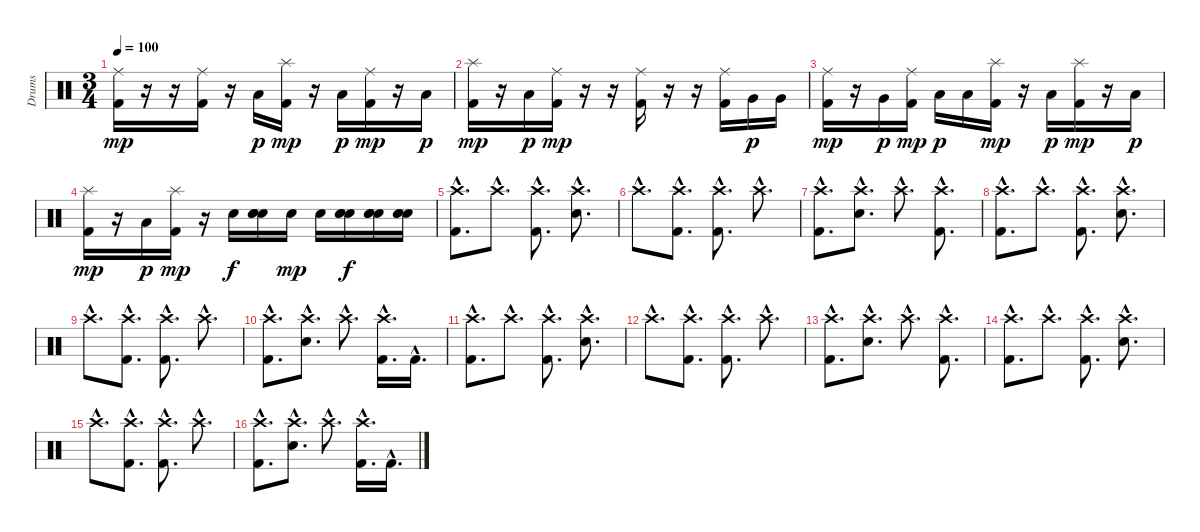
\track ("Drums" "Drums") {instrument percussion}
\staff {score}
\articulation defaults
\ts (3 4)
\tempo 100
\clef neutral
\ks c
("Ride (middle)" "Kick (hit) 2").16{dy mp} r.16 r.16 ("Ride (middle)" "Kick (hit) 2").16 r.16 "Low Floor Tom (hit)".16{dy p} ("Splash (hit)" "Kick (hit) 2").16{dy mp} r.16 "Low Floor Tom (hit)".16{dy p} ("Ride (middle)" "Kick (hit) 2").16{dy mp} r.16 "Low Floor Tom (hit)".16{dy p} |
("Splash (hit)" "Kick (hit) 2").16{dy mp} r.16 "Low Floor Tom (hit)".16{dy p} ("Ride (middle)" "Kick (hit) 2").16{dy mp} r.16 r.16 ("Ride (middle)" "Kick (hit) 2").16 r.16 r.16 ("Ride (middle)" "Kick (hit) 2").16 "Very Low Tom (hit)".16{dy p} "Very Low Tom (hit)".16 |
("Ride (middle)" "Kick (hit) 2").16{dy mp} r.16 "Very Low Tom (hit)".16{dy p} ("Ride (middle)" "Kick (hit) 2").16{dy mp} "Low Floor Tom (hit)".16{dy p} "Low Floor Tom (hit)".16 ("Splash (hit)" "Kick (hit) 2").16{dy mp} r.16 "Low Floor Tom (hit)".16{dy p} ("Splash (hit)" "Kick (hit) 2").16{dy mp} r.16 "Low Floor Tom (hit)".16{dy p} |
("Splash (hit)" "Kick (hit) 2").16{dy mp} r.16 "Low Floor Tom (hit)".16{dy p} ("Splash (hit)" "Kick (hit) 2").16{dy mp} r.16 "Electric Snare (hit)".16{dy f} ("Electric Snare (hit)" "Electric Snare (hit)" "Electric Snare (hit)").16 "Electric Snare (hit)".16{dy mp} "Electric Snare (hit)".16 ("Electric Snare (hit)" "Electric Snare (hit)" "Electric Snare (hit)").16{dy f} ("Electric Snare (hit)" "Electric Snare (hit)" "Electric Snare (hit)").16 ("Electric Snare (hit)" "Electric Snare (hit)" "Electric Snare (hit)").16 |
("Crash high (hit)"{hac} "Kick (hit) 2"{hac}).8{d} "Crash high (hit)"{hac}.8{d} ("Crash high (hit)"{hac} "Kick (hit) 2"{hac}).8{d} ("Crash high (hit)"{hac} "Electric Snare (hit)"{hac}).8{d} |
"Crash high (hit)"{hac}.8{d} ("Crash high (hit)"{hac} "Kick (hit) 2"{hac}).8{d} ("Crash high (hit)"{hac} "Kick (hit) 2"{hac}).8{d} "Crash high (hit)"{hac}.8{d} |
("Crash high (hit)"{hac} "Kick (hit) 2"{hac}).8{d} ("Crash high (hit)"{hac} "Electric Snare (hit)"{hac}).8{d} "Crash high (hit)"{hac}.8{d} ("Crash high (hit)"{hac} "Kick (hit) 2"{hac}).8{d} |
("Crash high (hit)"{hac} "Kick (hit) 2"{hac}).8{d} "Crash high (hit)"{hac}.8{d} ("Crash high (hit)"{hac} "Kick (hit) 2"{hac}).8{d} ("Crash high (hit)"{hac} "Electric Snare (hit)"{hac}).8{d} |
"Crash high (hit)"{hac}.8{d} ("Crash high (hit)"{hac} "Kick (hit) 2"{hac}).8{d} ("Crash high (hit)"{hac} "Kick (hit) 2"{hac}).8{d} "Crash high (hit)"{hac}.8{d} |
("Crash high (hit)"{hac} "Kick (hit) 2"{hac}).8{d} ("Crash high (hit)"{hac} "Electric Snare (hit)"{hac}).8{d} "Crash high (hit)"{hac}.8{d} ("Crash high (hit)"{hac} "Kick (hit) 2"{hac}).16{d} "Kick (hit) 2"{hac}.16{d} |
("Crash high (hit)"{hac} "Kick (hit) 2"{hac}).8{d} "Crash high (hit)"{hac}.8{d} ("Crash high (hit)"{hac} "Kick (hit) 2"{hac}).8{d} ("Crash high (hit)"{hac} "Electric Snare (hit)"{hac}).8{d} |
"Crash high (hit)"{hac}.8{d} ("Crash high (hit)"{hac} "Kick (hit) 2"{hac}).8{d} ("Crash high (hit)"{hac} "Kick (hit) 2"{hac}).8{d} "Crash high (hit)"{hac}.8{d} |
("Crash high (hit)"{hac} "Kick (hit) 2"{hac}).8{d} ("Crash high (hit)"{hac} "Electric Snare (hit)"{hac}).8{d} "Crash high (hit)"{hac}.8{d} ("Crash high (hit)"{hac} "Kick (hit) 2"{hac}).8{d} |
("Crash high (hit)"{hac} "Kick (hit) 2"{hac}).8{d} "Crash high (hit)"{hac}.8{d} ("Crash high (hit)"{hac} "Kick (hit) 2"{hac}).8{d} ("Crash high (hit)"{hac} "Electric Snare (hit)"{hac}).8{d} |
"Crash high (hit)"{hac}.8{d} ("Crash high (hit)"{hac} "Kick (hit) 2"{hac}).8{d} ("Crash high (hit)"{hac} "Kick (hit) 2"{hac}).8{d} "Crash high (hit)"{hac}.8{d} |
("Crash high (hit)"{hac} "Kick (hit) 2"{hac}).8{d} ("Crash high (hit)"{hac} "Electric Snare (hit)"{hac}).8{d} "Crash high (hit)"{hac}.8{d} ("Crash high (hit)"{hac} "Kick (hit) 2"{hac}).16{d} "Kick (hit) 2"{hac}.16{d}
